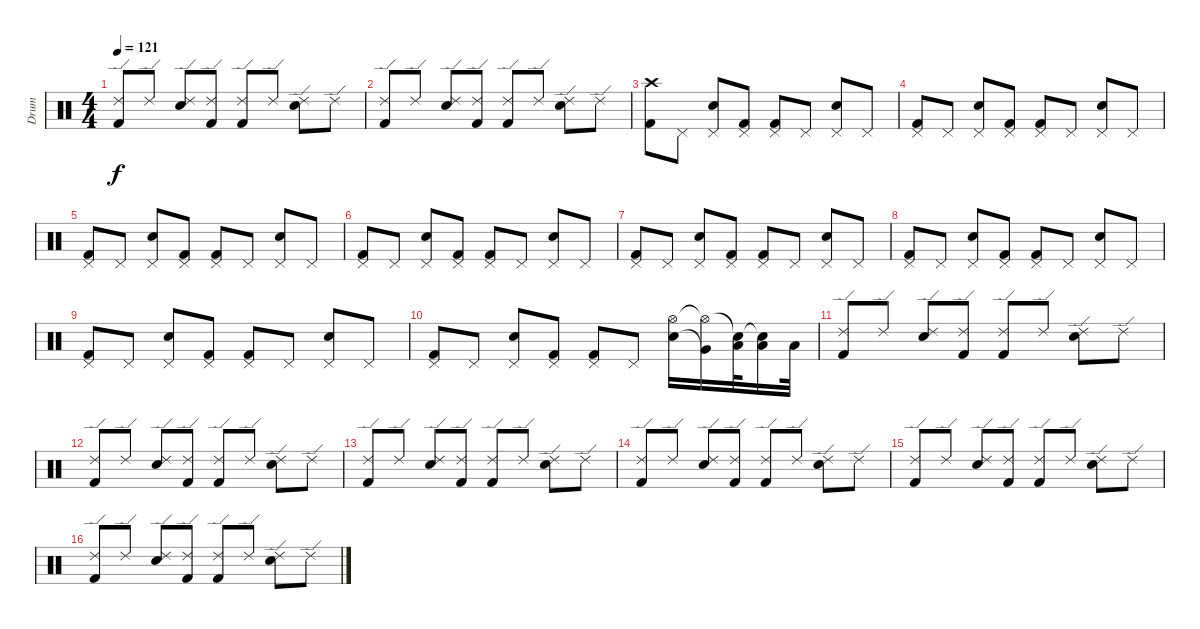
\track ("Drum" "Drum") {instrument percussion}
\staff {score}
\articulation defaults
\ts (4 4)
\tempo 121
\clef neutral
\ks c
("Ride (edge) 2" "Kick (hit) 2").8{dy f} "Ride (edge) 2".8 ("Ride (edge) 2" "Snare (hit) 2").8 ("Ride (edge) 2" "Kick (hit) 2").8 ("Ride (edge) 2" "Kick (hit) 2").8 "Ride (edge) 2".8 ("Ride (edge) 2" "Snare (hit) 2").8 "Ride (edge) 2".8 |
("Ride (edge) 2" "Kick (hit) 2").8 "Ride (edge) 2".8 ("Ride (edge) 2" "Snare (hit) 2").8 ("Ride (edge) 2" "Kick (hit) 2").8 ("Ride (edge) 2" "Kick (hit) 2").8 "Ride (edge) 2".8 ("Ride (edge) 2" "Snare (hit) 2").8 "Ride (edge) 2".8 |
("Crash high (hit)" "Kick (hit) 2").8 "Pedal Hi-Hat (hit)".8 ("Pedal Hi-Hat (hit)" "Snare (hit) 2").8 ("Pedal Hi-Hat (hit)" "Kick (hit) 2").8 ("Pedal Hi-Hat (hit)" "Kick (hit) 2").8 "Pedal Hi-Hat (hit)".8 ("Pedal Hi-Hat (hit)" "Snare (hit) 2").8 "Pedal Hi-Hat (hit)".8 |
("Pedal Hi-Hat (hit)" "Kick (hit) 2").8 "Pedal Hi-Hat (hit)".8 ("Pedal Hi-Hat (hit)" "Snare (hit) 2").8 ("Pedal Hi-Hat (hit)" "Kick (hit) 2").8 ("Pedal Hi-Hat (hit)" "Kick (hit) 2").8 "Pedal Hi-Hat (hit)".8 ("Pedal Hi-Hat (hit)" "Snare (hit) 2").8 "Pedal Hi-Hat (hit)".8 |
("Pedal Hi-Hat (hit)" "Kick (hit) 2").8 "Pedal Hi-Hat (hit)".8 ("Pedal Hi-Hat (hit)" "Snare (hit) 2").8 ("Pedal Hi-Hat (hit)" "Kick (hit) 2").8 ("Pedal Hi-Hat (hit)" "Kick (hit) 2").8 "Pedal Hi-Hat (hit)".8 ("Pedal Hi-Hat (hit)" "Snare (hit) 2").8 "Pedal Hi-Hat (hit)".8 |
("Pedal Hi-Hat (hit)" "Kick (hit) 2").8 "Pedal Hi-Hat (hit)".8 ("Pedal Hi-Hat (hit)" "Snare (hit) 2").8 ("Pedal Hi-Hat (hit)" "Kick (hit) 2").8 ("Pedal Hi-Hat (hit)" "Kick (hit) 2").8 "Pedal Hi-Hat (hit)".8 ("Pedal Hi-Hat (hit)" "Snare (hit) 2").8 "Pedal Hi-Hat (hit)".8 |
("Pedal Hi-Hat (hit)" "Kick (hit) 2").8 "Pedal Hi-Hat (hit)".8 ("Pedal Hi-Hat (hit)" "Snare (hit) 2").8 ("Pedal Hi-Hat (hit)" "Kick (hit) 2").8 ("Pedal Hi-Hat (hit)" "Kick (hit) 2").8 "Pedal Hi-Hat (hit)".8 ("Pedal Hi-Hat (hit)" "Snare (hit) 2").8 "Pedal Hi-Hat (hit)".8 |
("Pedal Hi-Hat (hit)" "Kick (hit) 2").8 "Pedal Hi-Hat (hit)".8 ("Pedal Hi-Hat (hit)" "Snare (hit) 2").8 ("Pedal Hi-Hat (hit)" "Kick (hit) 2").8 ("Pedal Hi-Hat (hit)" "Kick (hit) 2").8 "Pedal Hi-Hat (hit)".8 ("Pedal Hi-Hat (hit)" "Snare (hit) 2").8 "Pedal Hi-Hat (hit)".8 |
("Pedal Hi-Hat (hit)" "Kick (hit) 2").8 "Pedal Hi-Hat (hit)".8 ("Pedal Hi-Hat (hit)" "Snare (hit) 2").8 ("Pedal Hi-Hat (hit)" "Kick (hit) 2").8 ("Pedal Hi-Hat (hit)" "Kick (hit) 2").8 "Pedal Hi-Hat (hit)".8 ("Pedal Hi-Hat (hit)" "Snare (hit) 2").8 "Pedal Hi-Hat (hit)".8 |
("Pedal Hi-Hat (hit)" "Kick (hit) 2").8 "Pedal Hi-Hat (hit)".8 ("Pedal Hi-Hat (hit)" "Snare (hit) 2").8 ("Pedal Hi-Hat (hit)" "Kick (hit) 2").8 ("Pedal Hi-Hat (hit)" "Kick (hit) 2").8 "Pedal Hi-Hat (hit)".8 ("Hi-Hat (open)" "Snare (hit) 2").16 ("Hi-Hat (open)"{t} "Very Low Tom (hit)"{t}).16 ("Snare (hit)"{t} "Low Tom (hit)").32 ("Snare (hit)"{t} "Low Tom (hit)").16 "Low Tom (hit)".32 |
("Ride (edge) 2" "Kick (hit) 2").8 "Ride (edge) 2".8 ("Ride (edge) 2" "Snare (hit) 2").8 ("Ride (edge) 2" "Kick (hit) 2").8 ("Ride (edge) 2" "Kick (hit) 2").8 "Ride (edge) 2".8 ("Ride (edge) 2" "Snare (hit) 2").8 "Ride (edge) 2".8 |
("Ride (edge) 2" "Kick (hit) 2").8 "Ride (edge) 2".8 ("Ride (edge) 2" "Snare (hit) 2").8 ("Ride (edge) 2" "Kick (hit) 2").8 ("Ride (edge) 2" "Kick (hit) 2").8 "Ride (edge) 2".8 ("Ride (edge) 2" "Snare (hit) 2").8 "Ride (edge) 2".8 |
("Ride (edge) 2" "Kick (hit) 2").8 "Ride (edge) 2".8 ("Ride (edge) 2" "Snare (hit) 2").8 ("Ride (edge) 2" "Kick (hit) 2").8 ("Ride (edge) 2" "Kick (hit) 2").8 "Ride (edge) 2".8 ("Ride (edge) 2" "Snare (hit) 2").8 "Ride (edge) 2".8 |
("Ride (edge) 2" "Kick (hit) 2").8 "Ride (edge) 2".8 ("Ride (edge) 2" "Snare (hit) 2").8 ("Ride (edge) 2" "Kick (hit) 2").8 ("Ride (edge) 2" "Kick (hit) 2").8 "Ride (edge) 2".8 ("Ride (edge) 2" "Snare (hit) 2").8 "Ride (edge) 2".8 |
("Ride (edge) 2" "Kick (hit) 2").8 "Ride (edge) 2".8 ("Ride (edge) 2" "Snare (hit) 2").8 ("Ride (edge) 2" "Kick (hit) 2").8 ("Ride (edge) 2" "Kick (hit) 2").8 "Ride (edge) 2".8 ("Ride (edge) 2" "Snare (hit) 2").8 "Ride (edge) 2".8 |
("Ride (edge) 2" "Kick (hit) 2").8 "Ride (edge) 2".8 ("Ride (edge) 2" "Snare (hit) 2").8 ("Ride (edge) 2" "Kick (hit) 2").8 ("Ride (edge) 2" "Kick (hit) 2").8 "Ride (edge) 2".8 ("Ride (edge) 2" "Snare (hit) 2").8 "Ride (edge) 2".8
